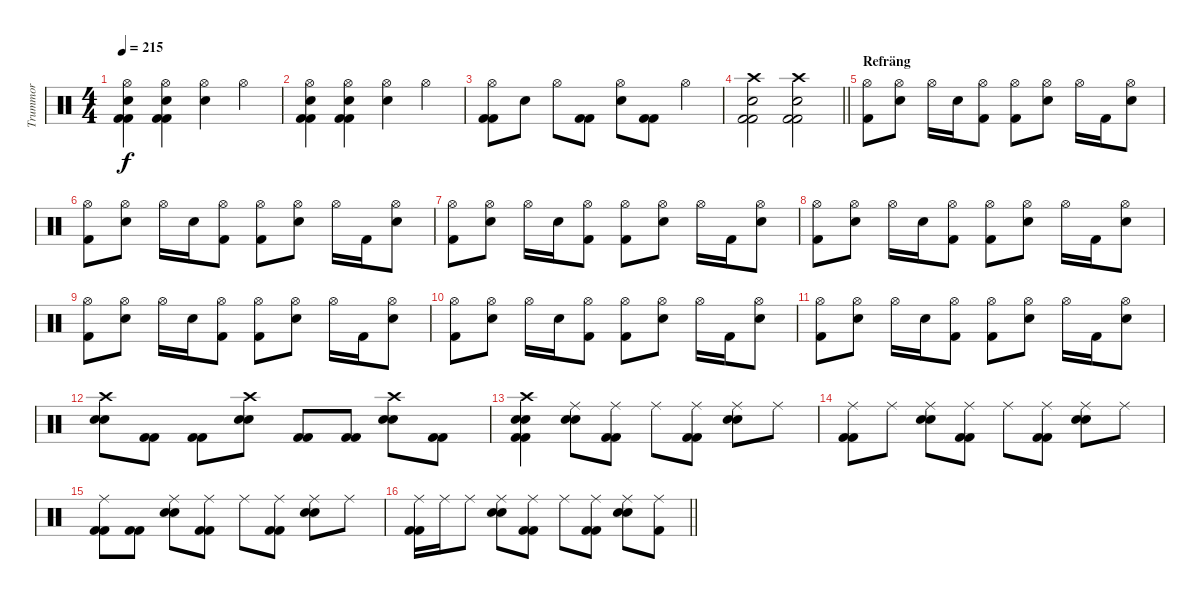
\track ("Trummor" "Trummor") {instrument percussion}
\staff {score}
\articulation defaults
\ts (4 4)
\tempo 215
\clef neutral
\ks c
("Hi-Hat (open)" "Electric Snare (hit)" "Kick (hit) 2" "Kick (hit) 2").4{dy f} ("Hi-Hat (open)" "Electric Snare (hit)" "Kick (hit) 2" "Kick (hit) 2").4 ("Hi-Hat (open)" "Electric Snare (hit)").4 "Hi-Hat (open)".4 |
("Hi-Hat (open)" "Electric Snare (hit)" "Kick (hit) 2" "Kick (hit) 2").4 ("Hi-Hat (open)" "Electric Snare (hit)" "Kick (hit) 2" "Kick (hit) 2").4 ("Hi-Hat (open)" "Electric Snare (hit)").4 "Hi-Hat (open)".4 |
("Hi-Hat (open)" "Kick (hit) 2" "Kick (hit) 2").8 "Electric Snare (hit)".8 "Hi-Hat (open)".8 ("Kick (hit) 2" "Kick (hit) 2").8 ("Hi-Hat (open)" "Electric Snare (hit)").8 ("Kick (hit) 2" "Kick (hit) 2").8 "Hi-Hat (open)".4 |
\barLineRight lightlight
("Crash high (hit)" "Electric Snare (hit)" "Kick (hit) 2" "Kick (hit) 2").2 ("Crash high (hit)" "Electric Snare (hit)" "Kick (hit) 2" "Kick (hit) 2").2 |
\section ("" "Refräng")
("Hi-Hat (open)" "Kick (hit) 2").8 ("Hi-Hat (open)" "Electric Snare (hit)").8 "Hi-Hat (open)".16 "Electric Snare (hit)".16 ("Hi-Hat (open)" "Kick (hit) 2").8 ("Hi-Hat (open)" "Kick (hit) 2").8 ("Hi-Hat (open)" "Electric Snare (hit)").8 "Hi-Hat (open)".16 "Kick (hit) 2".16 ("Hi-Hat (open)" "Electric Snare (hit)").8 |
("Hi-Hat (open)" "Kick (hit) 2").8 ("Hi-Hat (open)" "Electric Snare (hit)").8 "Hi-Hat (open)".16 "Electric Snare (hit)".16 ("Hi-Hat (open)" "Kick (hit) 2").8 ("Hi-Hat (open)" "Kick (hit) 2").8 ("Hi-Hat (open)" "Electric Snare (hit)").8 "Hi-Hat (open)".16 "Kick (hit) 2".16 ("Hi-Hat (open)" "Electric Snare (hit)").8 |
("Hi-Hat (open)" "Kick (hit) 2").8 ("Hi-Hat (open)" "Electric Snare (hit)").8 "Hi-Hat (open)".16 "Electric Snare (hit)".16 ("Hi-Hat (open)" "Kick (hit) 2").8 ("Hi-Hat (open)" "Kick (hit) 2").8 ("Hi-Hat (open)" "Electric Snare (hit)").8 "Hi-Hat (open)".16 "Kick (hit) 2".16 ("Hi-Hat (open)" "Electric Snare (hit)").8 |
("Hi-Hat (open)" "Kick (hit) 2").8 ("Hi-Hat (open)" "Electric Snare (hit)").8 "Hi-Hat (open)".16 "Electric Snare (hit)".16 ("Hi-Hat (open)" "Kick (hit) 2").8 ("Hi-Hat (open)" "Kick (hit) 2").8 ("Hi-Hat (open)" "Electric Snare (hit)").8 "Hi-Hat (open)".16 "Kick (hit) 2".16 ("Hi-Hat (open)" "Electric Snare (hit)").8 |
("Hi-Hat (open)" "Kick (hit) 2").8 ("Hi-Hat (open)" "Electric Snare (hit)").8 "Hi-Hat (open)".16 "Electric Snare (hit)".16 ("Hi-Hat (open)" "Kick (hit) 2").8 ("Hi-Hat (open)" "Kick (hit) 2").8 ("Hi-Hat (open)" "Electric Snare (hit)").8 "Hi-Hat (open)".16 "Kick (hit) 2".16 ("Hi-Hat (open)" "Electric Snare (hit)").8 |
("Hi-Hat (open)" "Kick (hit) 2").8 ("Hi-Hat (open)" "Electric Snare (hit)").8 "Hi-Hat (open)".16 "Electric Snare (hit)".16 ("Hi-Hat (open)" "Kick (hit) 2").8 ("Hi-Hat (open)" "Kick (hit) 2").8 ("Hi-Hat (open)" "Electric Snare (hit)").8 "Hi-Hat (open)".16 "Kick (hit) 2".16 ("Hi-Hat (open)" "Electric Snare (hit)").8 |
("Hi-Hat (open)" "Kick (hit) 2").8 ("Hi-Hat (open)" "Electric Snare (hit)").8 "Hi-Hat (open)".16 "Electric Snare (hit)".16 ("Hi-Hat (open)" "Kick (hit) 2").8 ("Hi-Hat (open)" "Kick (hit) 2").8 ("Hi-Hat (open)" "Electric Snare (hit)").8 "Hi-Hat (open)".16 "Kick (hit) 2".16 ("Hi-Hat (open)" "Electric Snare (hit)").8 |
("Crash high (hit)" "Electric Snare (hit)" "Electric Snare (hit)").8 ("Kick (hit) 2" "Kick (hit) 2").8 ("Kick (hit) 2" "Kick (hit) 2").8 ("Crash high (hit)" "Electric Snare (hit)" "Electric Snare (hit)").8 ("Kick (hit) 2" "Kick (hit) 2").8 ("Kick (hit) 2" "Kick (hit) 2").8 ("Crash high (hit)" "Electric Snare (hit)" "Electric Snare (hit)").8 ("Kick (hit) 2" "Kick (hit) 2").8 |
\section ("" "")
("Crash high (hit)" "Electric Snare (hit)" "Electric Snare (hit)" "Kick (hit) 2" "Kick (hit) 2").4 ("Ride (middle)" "Electric Snare (hit)" "Electric Snare (hit)").8 ("Ride (middle)" "Kick (hit) 2" "Kick (hit) 2").8 "Ride (middle)".8 ("Ride (middle)" "Kick (hit) 2" "Kick (hit) 2").8 ("Ride (middle)" "Electric Snare (hit)" "Electric Snare (hit)").8 "Ride (middle)".8 |
("Ride (middle)" "Kick (hit) 2" "Kick (hit) 2").8 "Ride (middle)".8 ("Ride (middle)" "Electric Snare (hit)" "Electric Snare (hit)").8 ("Ride (middle)" "Kick (hit) 2" "Kick (hit) 2").8 "Ride (middle)".8 ("Ride (middle)" "Kick (hit) 2" "Kick (hit) 2").8 ("Ride (middle)" "Electric Snare (hit)" "Electric Snare (hit)").8 "Ride (middle)".8 |
("Ride (middle)" "Kick (hit) 2" "Kick (hit) 2").8 ("Kick (hit) 2" "Kick (hit) 2").8 ("Ride (middle)" "Electric Snare (hit)" "Electric Snare (hit)").8 ("Ride (middle)" "Kick (hit) 2" "Kick (hit) 2").8 "Ride (middle)".8 ("Ride (middle)" "Kick (hit) 2" "Kick (hit) 2").8 ("Ride (middle)" "Electric Snare (hit)" "Electric Snare (hit)").8 "Ride (middle)".8 |
\barLineRight lightlight
("Ride (middle)" "Kick (hit) 2" "Kick (hit) 2").16 "Ride (middle)".16 "Ride (middle)".8 ("Ride (middle)" "Electric Snare (hit)" "Electric Snare (hit)").8 ("Ride (middle)" "Kick (hit) 2" "Kick (hit) 2").8 "Ride (middle)".8 ("Ride (middle)" "Kick (hit) 2" "Kick (hit) 2").8 ("Ride (middle)" "Electric Snare (hit)" "Electric Snare (hit)").8 ("Ride (middle)" "Kick (hit) 2").8
